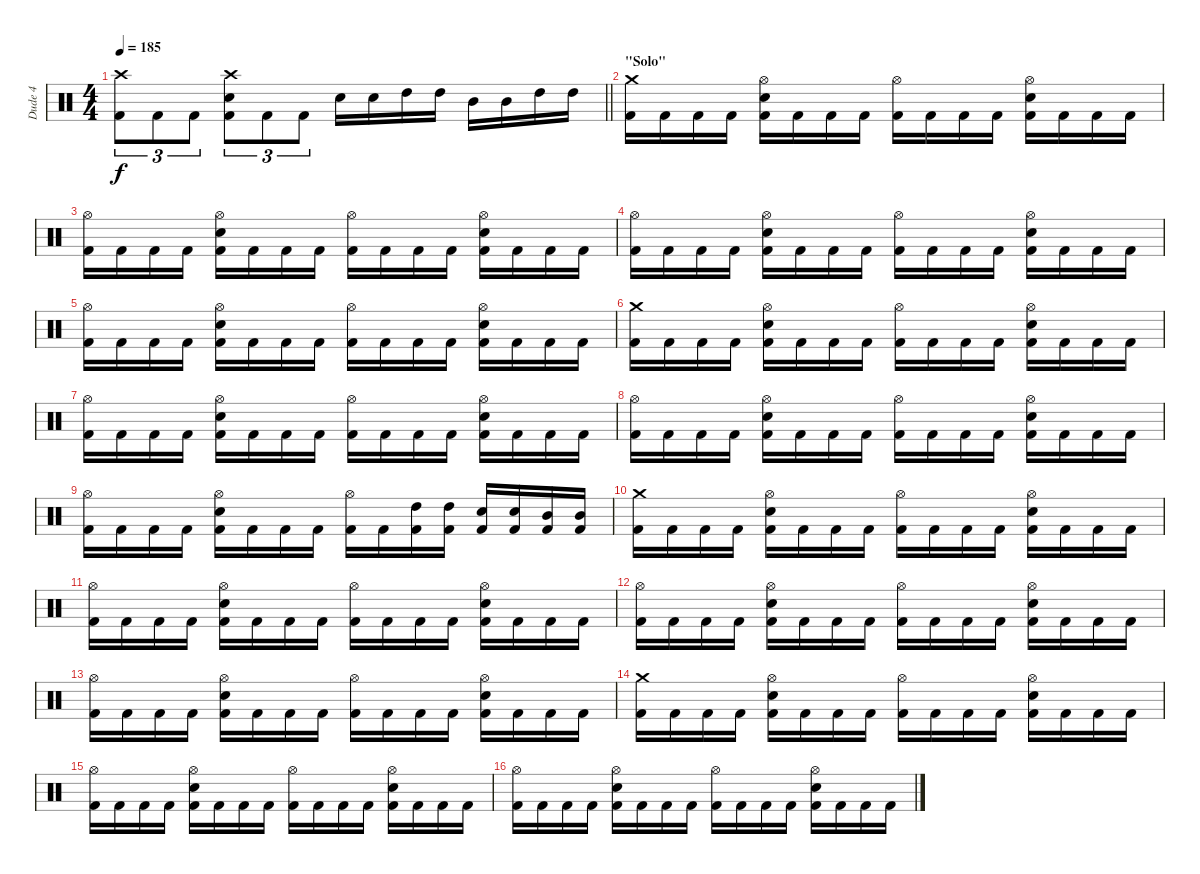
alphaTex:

\track ("Dude 4" "Dude 4") {instrument percussion}
\staff {score}
\articulation defaults
\ts (4 4)
\tempo 185
\clef neutral
\barLineRight lightlight
\ks c
("Crash high (hit)" "Kick (hit) 2").8{tu (3 2) dy f} "Kick (hit) 2".8{tu (3 2)} "Kick (hit) 2".8{tu (3 2)} ("Crash high (hit)" "Electric Snare (hit)" "Kick (hit) 2").8{tu (3 2)} "Kick (hit) 2".8{tu (3 2)} "Kick (hit) 2".8{tu (3 2)} "Electric Snare (hit)".16 "Electric Snare (hit)".16 "High Tom (hit)".16 "High Tom (hit)".16 "Mid Tom (hit)".16 "Mid Tom (hit)".16 "High Tom (hit)".16 "High Tom (hit)".16 |
\section ("" "\"Solo\"")
("Crash medium (hit)" "Kick (hit) 2").16 "Kick (hit) 2".16 "Kick (hit) 2".16 "Kick (hit) 2".16 ("Hi-Hat (open)" "Electric Snare (hit)" "Kick (hit) 2").16 "Kick (hit) 2".16 "Kick (hit) 2".16 "Kick (hit) 2".16 ("Hi-Hat (open)" "Kick (hit) 2").16 "Kick (hit) 2".16 "Kick (hit) 2".16 "Kick (hit) 2".16 ("Hi-Hat (open)" "Electric Snare (hit)" "Kick (hit) 2").16 "Kick (hit) 2".16 "Kick (hit) 2".16 "Kick (hit) 2".16 |
("Hi-Hat (open)" "Kick (hit) 2").16 "Kick (hit) 2".16 "Kick (hit) 2".16 "Kick (hit) 2".16 ("Hi-Hat (open)" "Electric Snare (hit)" "Kick (hit) 2").16 "Kick (hit) 2".16 "Kick (hit) 2".16 "Kick (hit) 2".16 ("Hi-Hat (open)" "Kick (hit) 2").16 "Kick (hit) 2".16 "Kick (hit) 2".16 "Kick (hit) 2".16 ("Hi-Hat (open)" "Electric Snare (hit)" "Kick (hit) 2").16 "Kick (hit) 2".16 "Kick (hit) 2".16 "Kick (hit) 2".16 |
("Hi-Hat (open)" "Kick (hit) 2").16 "Kick (hit) 2".16 "Kick (hit) 2".16 "Kick (hit) 2".16 ("Hi-Hat (open)" "Electric Snare (hit)" "Kick (hit) 2").16 "Kick (hit) 2".16 "Kick (hit) 2".16 "Kick (hit) 2".16 ("Hi-Hat (open)" "Kick (hit) 2").16 "Kick (hit) 2".16 "Kick (hit) 2".16 "Kick (hit) 2".16 ("Hi-Hat (open)" "Electric Snare (hit)" "Kick (hit) 2").16 "Kick (hit) 2".16 "Kick (hit) 2".16 "Kick (hit) 2".16 |
("Hi-Hat (open)" "Kick (hit) 2").16 "Kick (hit) 2".16 "Kick (hit) 2".16 "Kick (hit) 2".16 ("Hi-Hat (open)" "Electric Snare (hit)" "Kick (hit) 2").16 "Kick (hit) 2".16 "Kick (hit) 2".16 "Kick (hit) 2".16 ("Hi-Hat (open)" "Kick (hit) 2").16 "Kick (hit) 2".16 "Kick (hit) 2".16 "Kick (hit) 2".16 ("Hi-Hat (open)" "Electric Snare (hit)" "Kick (hit) 2").16 "Kick (hit) 2".16 "Kick (hit) 2".16 "Kick (hit) 2".16 |
("Crash medium (hit)" "Kick (hit) 2").16 "Kick (hit) 2".16 "Kick (hit) 2".16 "Kick (hit) 2".16 ("Hi-Hat (open)" "Electric Snare (hit)" "Kick (hit) 2").16 "Kick (hit) 2".16 "Kick (hit) 2".16 "Kick (hit) 2".16 ("Hi-Hat (open)" "Kick (hit) 2").16 "Kick (hit) 2".16 "Kick (hit) 2".16 "Kick (hit) 2".16 ("Hi-Hat (open)" "Electric Snare (hit)" "Kick (hit) 2").16 "Kick (hit) 2".16 "Kick (hit) 2".16 "Kick (hit) 2".16 |
("Hi-Hat (open)" "Kick (hit) 2").16 "Kick (hit) 2".16 "Kick (hit) 2".16 "Kick (hit) 2".16 ("Hi-Hat (open)" "Electric Snare (hit)" "Kick (hit) 2").16 "Kick (hit) 2".16 "Kick (hit) 2".16 "Kick (hit) 2".16 ("Hi-Hat (open)" "Kick (hit) 2").16 "Kick (hit) 2".16 "Kick (hit) 2".16 "Kick (hit) 2".16 ("Hi-Hat (open)" "Electric Snare (hit)" "Kick (hit) 2").16 "Kick (hit) 2".16 "Kick (hit) 2".16 "Kick (hit) 2".16 |
("Hi-Hat (open)" "Kick (hit) 2").16 "Kick (hit) 2".16 "Kick (hit) 2".16 "Kick (hit) 2".16 ("Hi-Hat (open)" "Electric Snare (hit)" "Kick (hit) 2").16 "Kick (hit) 2".16 "Kick (hit) 2".16 "Kick (hit) 2".16 ("Hi-Hat (open)" "Kick (hit) 2").16 "Kick (hit) 2".16 "Kick (hit) 2".16 "Kick (hit) 2".16 ("Hi-Hat (open)" "Electric Snare (hit)" "Kick (hit) 2").16 "Kick (hit) 2".16 "Kick (hit) 2".16 "Kick (hit) 2".16 |
("Hi-Hat (open)" "Kick (hit) 2").16 "Kick (hit) 2".16 "Kick (hit) 2".16 "Kick (hit) 2".16 ("Hi-Hat (open)" "Electric Snare (hit)" "Kick (hit) 2").16 "Kick (hit) 2".16 "Kick (hit) 2".16 "Kick (hit) 2".16 ("Hi-Hat (open)" "Kick (hit) 2").16 "Kick (hit) 2".16 ("High Tom (hit)" "Kick (hit) 2").16 ("High Tom (hit)" "Kick (hit) 2").16 ("Electric Snare (hit)" "Kick (hit) 2").16 ("Electric Snare (hit)" "Kick (hit) 2").16 ("Mid Tom (hit)" "Kick (hit) 2").16 ("Mid Tom (hit)" "Kick (hit) 2").16 |
("Crash medium (hit)" "Kick (hit) 2").16 "Kick (hit) 2".16 "Kick (hit) 2".16 "Kick (hit) 2".16 ("Hi-Hat (open)" "Electric Snare (hit)" "Kick (hit) 2").16 "Kick (hit) 2".16 "Kick (hit) 2".16 "Kick (hit) 2".16 ("Hi-Hat (open)" "Kick (hit) 2").16 "Kick (hit) 2".16 "Kick (hit) 2".16 "Kick (hit) 2".16 ("Hi-Hat (open)" "Electric Snare (hit)" "Kick (hit) 2").16 "Kick (hit) 2".16 "Kick (hit) 2".16 "Kick (hit) 2".16 |
("Hi-Hat (open)" "Kick (hit) 2").16 "Kick (hit) 2".16 "Kick (hit) 2".16 "Kick (hit) 2".16 ("Hi-Hat (open)" "Electric Snare (hit)" "Kick (hit) 2").16 "Kick (hit) 2".16 "Kick (hit) 2".16 "Kick (hit) 2".16 ("Hi-Hat (open)" "Kick (hit) 2").16 "Kick (hit) 2".16 "Kick (hit) 2".16 "Kick (hit) 2".16 ("Hi-Hat (open)" "Electric Snare (hit)" "Kick (hit) 2").16 "Kick (hit) 2".16 "Kick (hit) 2".16 "Kick (hit) 2".16 |
("Hi-Hat (open)" "Kick (hit) 2").16 "Kick (hit) 2".16 "Kick (hit) 2".16 "Kick (hit) 2".16 ("Hi-Hat (open)" "Electric Snare (hit)" "Kick (hit) 2").16 "Kick (hit) 2".16 "Kick (hit) 2".16 "Kick (hit) 2".16 ("Hi-Hat (open)" "Kick (hit) 2").16 "Kick (hit) 2".16 "Kick (hit) 2".16 "Kick (hit) 2".16 ("Hi-Hat (open)" "Electric Snare (hit)" "Kick (hit) 2").16 "Kick (hit) 2".16 "Kick (hit) 2".16 "Kick (hit) 2".16 |
("Hi-Hat (open)" "Kick (hit) 2").16 "Kick (hit) 2".16 "Kick (hit) 2".16 "Kick (hit) 2".16 ("Hi-Hat (open)" "Electric Snare (hit)" "Kick (hit) 2").16 "Kick (hit) 2".16 "Kick (hit) 2".16 "Kick (hit) 2".16 ("Hi-Hat (open)" "Kick (hit) 2").16 "Kick (hit) 2".16 "Kick (hit) 2".16 "Kick (hit) 2".16 ("Hi-Hat (open)" "Electric Snare (hit)" "Kick (hit) 2").16 "Kick (hit) 2".16 "Kick (hit) 2".16 "Kick (hit) 2".16 |
("Crash medium (hit)" "Kick (hit) 2").16 "Kick (hit) 2".16 "Kick (hit) 2".16 "Kick (hit) 2".16 ("Hi-Hat (open)" "Electric Snare (hit)" "Kick (hit) 2").16 "Kick (hit) 2".16 "Kick (hit) 2".16 "Kick (hit) 2".16 ("Hi-Hat (open)" "Kick (hit) 2").16 "Kick (hit) 2".16 "Kick (hit) 2".16 "Kick (hit) 2".16 ("Hi-Hat (open)" "Electric Snare (hit)" "Kick (hit) 2").16 "Kick (hit) 2".16 "Kick (hit) 2".16 "Kick (hit) 2".16 |
("Hi-Hat (open)" "Kick (hit) 2").16 "Kick (hit) 2".16 "Kick (hit) 2".16 "Kick (hit) 2".16 ("Hi-Hat (open)" "Electric Snare (hit)" "Kick (hit) 2").16 "Kick (hit) 2".16 "Kick (hit) 2".16 "Kick (hit) 2".16 ("Hi-Hat (open)" "Kick (hit) 2").16 "Kick (hit) 2".16 "Kick (hit) 2".16 "Kick (hit) 2".16 ("Hi-Hat (open)" "Electric Snare (hit)" "Kick (hit) 2").16 "Kick (hit) 2".16 "Kick (hit) 2".16 "Kick (hit) 2".16 |
("Hi-Hat (open)" "Kick (hit) 2").16 "Kick (hit) 2".16 "Kick (hit) 2".16 "Kick (hit) 2".16 ("Hi-Hat (open)" "Electric Snare (hit)" "Kick (hit) 2").16 "Kick (hit) 2".16 "Kick (hit) 2".16 "Kick (hit) 2".16 ("Hi-Hat (open)" "Kick (hit) 2").16 "Kick (hit) 2".16 "Kick (hit) 2".16 "Kick (hit) 2".16 ("Hi-Hat (open)" "Electric Snare (hit)" "Kick (hit) 2").16 "Kick (hit) 2".16 "Kick (hit) 2".16 "Kick (hit) 2".16
